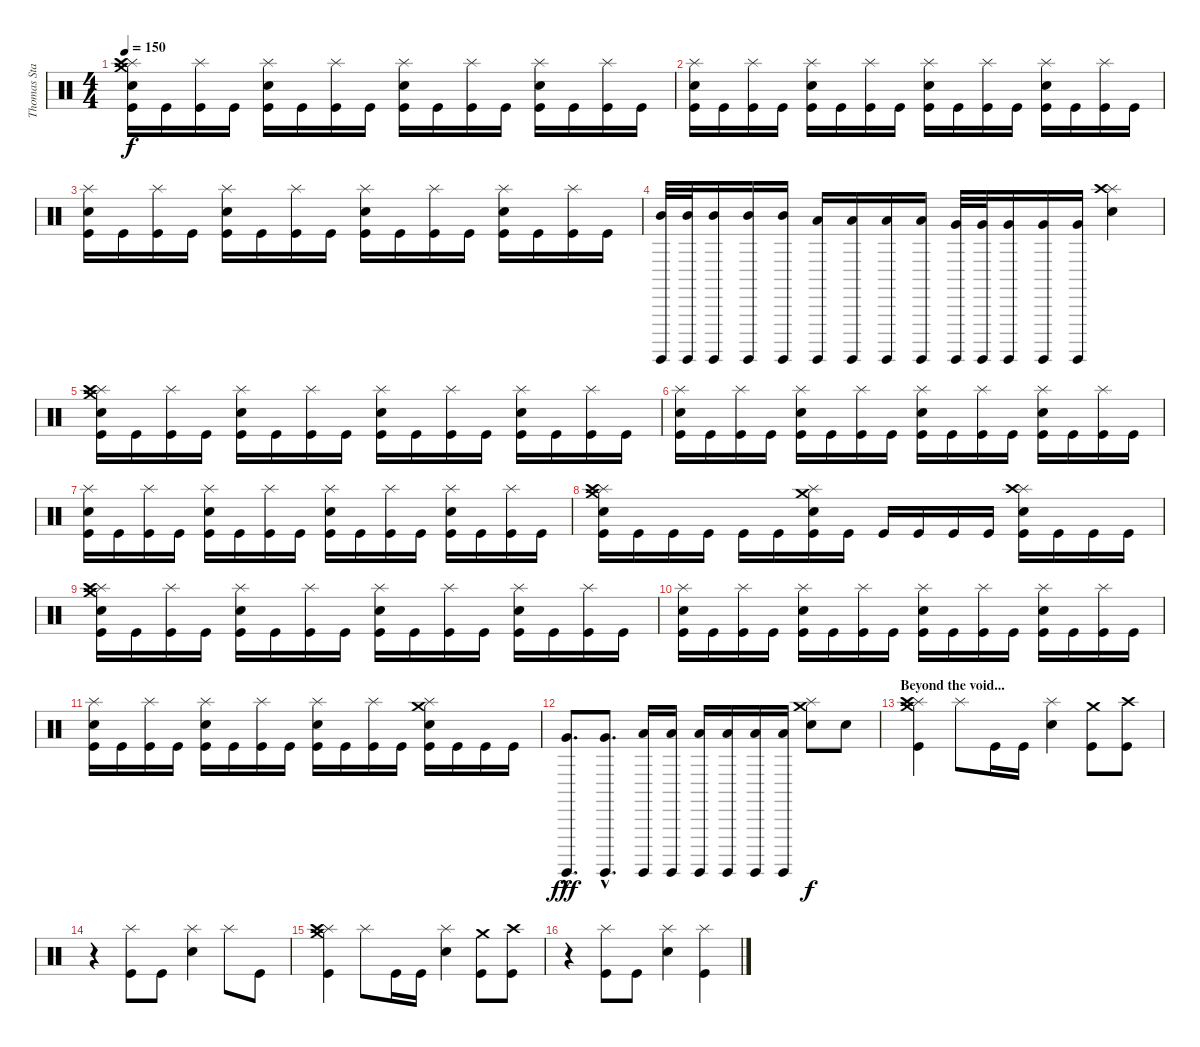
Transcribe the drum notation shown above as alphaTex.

\track ("Thomas Stauch" "Thomas Sta") {instrument percussion}
\staff {score}
\articulation defaults
\ts (4 4)
\tempo 150
\clef neutral
\ks c
("Crash medium (hit)" "Splash (hit)" "Crash high (hit)" "Electric Snare (hit)" "Kick (hit)").16{dy f} "Kick (hit)".16 ("Splash (hit)" "Kick (hit)").16 "Kick (hit)".16 ("Splash (hit)" "Electric Snare (hit)" "Kick (hit)").16 "Kick (hit)".16 ("Splash (hit)" "Kick (hit)").16 "Kick (hit)".16 ("Splash (hit)" "Electric Snare (hit)" "Kick (hit)").16 "Kick (hit)".16 ("Splash (hit)" "Kick (hit)").16 "Kick (hit)".16 ("Splash (hit)" "Electric Snare (hit)" "Kick (hit)").16 "Kick (hit)".16 ("Splash (hit)" "Kick (hit)").16 "Kick (hit)".16 |
("Splash (hit)" "Electric Snare (hit)" "Kick (hit)").16 "Kick (hit)".16 ("Splash (hit)" "Kick (hit)").16 "Kick (hit)".16 ("Splash (hit)" "Electric Snare (hit)" "Kick (hit)").16 "Kick (hit)".16 ("Splash (hit)" "Kick (hit)").16 "Kick (hit)".16 ("Splash (hit)" "Electric Snare (hit)" "Kick (hit)").16 "Kick (hit)".16 ("Splash (hit)" "Kick (hit)").16 "Kick (hit)".16 ("Splash (hit)" "Electric Snare (hit)" "Kick (hit)").16 "Kick (hit)".16 ("Splash (hit)" "Kick (hit)").16 "Kick (hit)".16 |
("Splash (hit)" "Electric Snare (hit)" "Kick (hit)").16 "Kick (hit)".16 ("Splash (hit)" "Kick (hit)").16 "Kick (hit)".16 ("Splash (hit)" "Electric Snare (hit)" "Kick (hit)").16 "Kick (hit)".16 ("Splash (hit)" "Kick (hit)").16 "Kick (hit)".16 ("Splash (hit)" "Electric Snare (hit)" "Kick (hit)").16 "Kick (hit)".16 ("Splash (hit)" "Kick (hit)").16 "Kick (hit)".16 ("Splash (hit)" "Electric Snare (hit)" "Kick (hit)").16 "Kick (hit)".16 ("Splash (hit)" "Kick (hit)").16 "Kick (hit)".16 |
("Surdo (hit)" "Mid Tom (hit)").32 ("Surdo (hit)" "Mid Tom (hit)").32 ("Surdo (hit)" "Mid Tom (hit)").16 ("Surdo (hit)" "Mid Tom (hit)").16 ("Surdo (hit)" "Mid Tom (hit)").16 ("Surdo (hit)" "Low Tom (hit)").16 ("Surdo (hit)" "Low Tom (hit)").16 ("Surdo (hit)" "Low Tom (hit)").16 ("Surdo (hit)" "Low Tom (hit)").16 ("Surdo (hit)" "Very Low Tom (hit)").32 ("Surdo (hit)" "Very Low Tom (hit)").32 ("Surdo (hit)" "Very Low Tom (hit)").16 ("Surdo (hit)" "Very Low Tom (hit)").16 ("Surdo (hit)" "Very Low Tom (hit)").16 ("Splash (hit)" "Crash high (hit)" "Electric Snare (hit)").4 |
("Crash medium (hit)" "Splash (hit)" "Crash high (hit)" "Electric Snare (hit)" "Kick (hit)").16 "Kick (hit)".16 ("Splash (hit)" "Kick (hit)").16 "Kick (hit)".16 ("Splash (hit)" "Electric Snare (hit)" "Kick (hit)").16 "Kick (hit)".16 ("Splash (hit)" "Kick (hit)").16 "Kick (hit)".16 ("Splash (hit)" "Electric Snare (hit)" "Kick (hit)").16 "Kick (hit)".16 ("Splash (hit)" "Kick (hit)").16 "Kick (hit)".16 ("Splash (hit)" "Electric Snare (hit)" "Kick (hit)").16 "Kick (hit)".16 ("Splash (hit)" "Kick (hit)").16 "Kick (hit)".16 |
("Splash (hit)" "Electric Snare (hit)" "Kick (hit)").16 "Kick (hit)".16 ("Splash (hit)" "Kick (hit)").16 "Kick (hit)".16 ("Splash (hit)" "Electric Snare (hit)" "Kick (hit)").16 "Kick (hit)".16 ("Splash (hit)" "Kick (hit)").16 "Kick (hit)".16 ("Splash (hit)" "Electric Snare (hit)" "Kick (hit)").16 "Kick (hit)".16 ("Splash (hit)" "Kick (hit)").16 "Kick (hit)".16 ("Splash (hit)" "Electric Snare (hit)" "Kick (hit)").16 "Kick (hit)".16 ("Splash (hit)" "Kick (hit)").16 "Kick (hit)".16 |
("Splash (hit)" "Electric Snare (hit)" "Kick (hit)").16 "Kick (hit)".16 ("Splash (hit)" "Kick (hit)").16 "Kick (hit)".16 ("Splash (hit)" "Electric Snare (hit)" "Kick (hit)").16 "Kick (hit)".16 ("Splash (hit)" "Kick (hit)").16 "Kick (hit)".16 ("Splash (hit)" "Electric Snare (hit)" "Kick (hit)").16 "Kick (hit)".16 ("Splash (hit)" "Kick (hit)").16 "Kick (hit)".16 ("Splash (hit)" "Electric Snare (hit)" "Kick (hit)").16 "Kick (hit)".16 ("Splash (hit)" "Kick (hit)").16 "Kick (hit)".16 |
("Crash medium (hit)" "Splash (hit)" "Crash high (hit)" "Electric Snare (hit)" "Kick (hit)").16 "Kick (hit)".16 "Kick (hit)".16 "Kick (hit)".16 "Kick (hit)".16 "Kick (hit)".16 ("Crash medium (hit)" "Splash (hit)" "Electric Snare (hit)" "Kick (hit)").16 "Kick (hit)".16 "Kick (hit)".16 "Kick (hit)".16 "Kick (hit)".16 "Kick (hit)".16 ("Splash (hit)" "Crash high (hit)" "Electric Snare (hit)" "Kick (hit)").16 "Kick (hit)".16 "Kick (hit)".16 "Kick (hit)".16 |
("Crash medium (hit)" "Splash (hit)" "Crash high (hit)" "Electric Snare (hit)" "Kick (hit)").16 "Kick (hit)".16 ("Splash (hit)" "Kick (hit)").16 "Kick (hit)".16 ("Splash (hit)" "Electric Snare (hit)" "Kick (hit)").16 "Kick (hit)".16 ("Splash (hit)" "Kick (hit)").16 "Kick (hit)".16 ("Splash (hit)" "Electric Snare (hit)" "Kick (hit)").16 "Kick (hit)".16 ("Splash (hit)" "Kick (hit)").16 "Kick (hit)".16 ("Splash (hit)" "Electric Snare (hit)" "Kick (hit)").16 "Kick (hit)".16 ("Splash (hit)" "Kick (hit)").16 "Kick (hit)".16 |
("Splash (hit)" "Electric Snare (hit)" "Kick (hit)").16 "Kick (hit)".16 ("Splash (hit)" "Kick (hit)").16 "Kick (hit)".16 ("Splash (hit)" "Electric Snare (hit)" "Kick (hit)").16 "Kick (hit)".16 ("Splash (hit)" "Kick (hit)").16 "Kick (hit)".16 ("Splash (hit)" "Electric Snare (hit)" "Kick (hit)").16 "Kick (hit)".16 ("Splash (hit)" "Kick (hit)").16 "Kick (hit)".16 ("Splash (hit)" "Electric Snare (hit)" "Kick (hit)").16 "Kick (hit)".16 ("Splash (hit)" "Kick (hit)").16 "Kick (hit)".16 |
("Splash (hit)" "Electric Snare (hit)" "Kick (hit)").16 "Kick (hit)".16 ("Splash (hit)" "Kick (hit)").16 "Kick (hit)".16 ("Splash (hit)" "Electric Snare (hit)" "Kick (hit)").16 "Kick (hit)".16 ("Splash (hit)" "Kick (hit)").16 "Kick (hit)".16 ("Splash (hit)" "Electric Snare (hit)" "Kick (hit)").16 "Kick (hit)".16 ("Splash (hit)" "Kick (hit)").16 "Kick (hit)".16 ("Crash medium (hit)" "Splash (hit)" "Electric Snare (hit)" "Kick (hit)").16 "Kick (hit)".16 "Kick (hit)".16 "Kick (hit)".16 |
("Surdo (hit)"{hac} "Very Low Tom (hit)"{hac}).8{d dy fff} ("Surdo (hit)"{hac} "Very Low Tom (hit)"{hac}).8{d} ("Surdo (hit)" "Low Floor Tom (hit)").16 ("Surdo (hit)" "Low Floor Tom (hit)").16 ("Surdo (hit)" "Low Floor Tom (hit)").16 ("Surdo (hit)" "Low Floor Tom (hit)").16 ("Surdo (hit)" "Low Floor Tom (hit)").16 ("Surdo (hit)" "Low Floor Tom (hit)").16 ("Crash medium (hit)" "Splash (hit)" "Electric Snare (hit)").8{dy f} "Electric Snare (hit)".8 |
\section ("" "Beyond the void...")
("Crash medium (hit)" "Splash (hit)" "Crash high (hit)" "Kick (hit)").4 "Splash (hit)".8 "Kick (hit)".16 "Kick (hit)".16 ("Splash (hit)" "Electric Snare (hit)").4 ("Crash medium (hit)" "Kick (hit)").8 ("Crash high (hit)" "Kick (hit)").8 |
r.4 ("Splash (hit)" "Kick (hit)").8 "Kick (hit)".8 ("Splash (hit)" "Electric Snare (hit)").4 "Splash (hit)".8 "Kick (hit)".8 |
("Crash medium (hit)" "Splash (hit)" "Crash high (hit)" "Kick (hit)").4 "Splash (hit)".8 "Kick (hit)".16 "Kick (hit)".16 ("Splash (hit)" "Electric Snare (hit)").4 ("Crash medium (hit)" "Kick (hit)").8 ("Crash high (hit)" "Kick (hit)").8 |
r.4 ("Splash (hit)" "Kick (hit)").8 "Kick (hit)".8 ("Splash (hit)" "Electric Snare (hit)").4 ("Splash (hit)" "Kick (hit)").4
